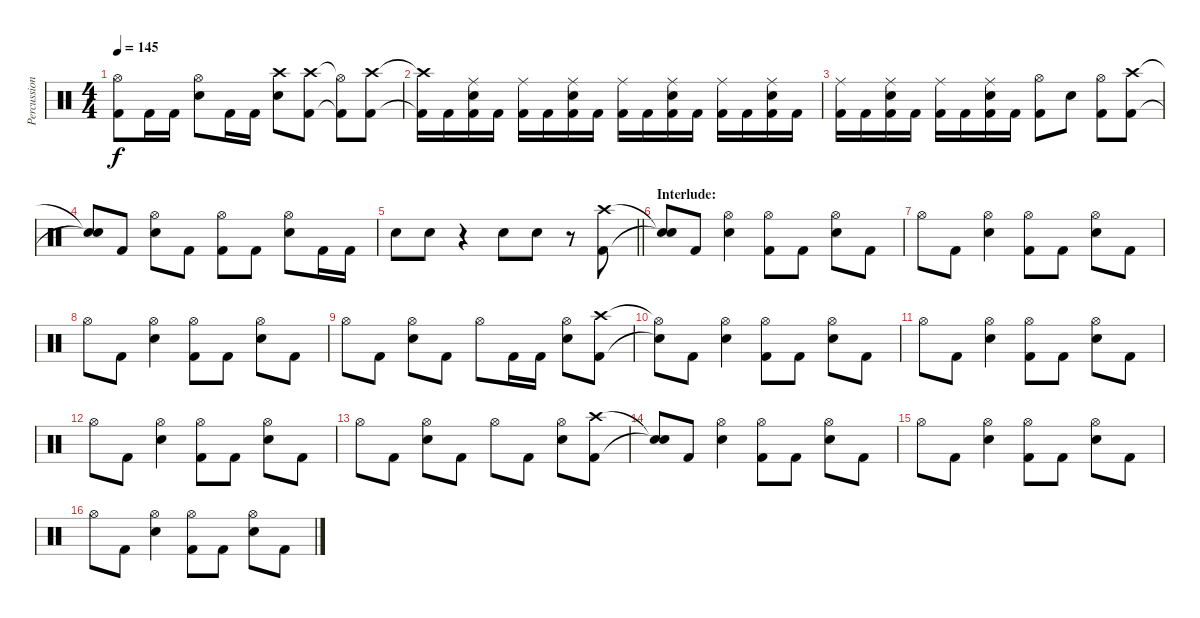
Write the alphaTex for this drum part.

\track ("Percussion" "Percussion") {instrument percussion}
\staff {score}
\articulation defaults
\ts (4 4)
\tempo 145
\clef neutral
\ks c
("Hi-Hat (open)" "Kick (hit) 2").8{dy f} "Kick (hit) 2".16 "Kick (hit) 2".16 ("Hi-Hat (open)" "Electric Snare (hit)").8 "Kick (hit) 2".16 "Kick (hit) 2".16 ("Crash high (hit)" "Electric Snare (hit)").8 ("Crash high (hit)" "Kick (hit) 2").8 ("Hi-Hat (open)"{t} "Kick (hit) 2"{t}).8 ("Crash high (hit)" "Kick (hit) 2").8 |
("Crash high (hit)"{t} "Kick (hit) 2"{t}).16 "Kick (hit) 2".16 ("Ride (middle)" "Electric Snare (hit)" "Kick (hit) 2").16 "Kick (hit) 2".16 ("Ride (middle)" "Kick (hit) 2").16 "Kick (hit) 2".16 ("Ride (middle)" "Electric Snare (hit)" "Kick (hit) 2").16 "Kick (hit) 2".16 ("Ride (middle)" "Kick (hit) 2").16 "Kick (hit) 2".16 ("Ride (middle)" "Electric Snare (hit)" "Kick (hit) 2").16 "Kick (hit) 2".16 ("Ride (middle)" "Kick (hit) 2").16 "Kick (hit) 2".16 ("Ride (middle)" "Electric Snare (hit)" "Kick (hit) 2").16 "Kick (hit) 2".16 |
("Ride (middle)" "Kick (hit) 2").16 "Kick (hit) 2".16 ("Ride (middle)" "Electric Snare (hit)" "Kick (hit) 2").16 "Kick (hit) 2".16 ("Ride (middle)" "Kick (hit) 2").16 "Kick (hit) 2".16 ("Ride (middle)" "Electric Snare (hit)" "Kick (hit) 2").16 "Kick (hit) 2".16 ("Hi-Hat (open)" "Kick (hit) 2").8 "Electric Snare (hit)".8 ("Hi-Hat (open)" "Kick (hit) 2").8 ("Crash high (hit)" "Kick (hit) 2").8 |
("Snare (hit)"{t} "Snare (hit)"{t}).8 "Kick (hit) 2".8 ("Hi-Hat (open)" "Electric Snare (hit)").8 "Kick (hit) 2".8 ("Hi-Hat (open)" "Kick (hit) 2").8 "Kick (hit) 2".8 ("Hi-Hat (open)" "Electric Snare (hit)").8 "Kick (hit) 2".16 "Kick (hit) 2".16 |
\barLineRight lightlight "Electric Snare (hit)".8 "Electric Snare (hit)".8
r.4 "Electric Snare (hit)".8 "Electric Snare (hit)".8 r.8 ("Crash high (hit)" "Kick (hit) 2").8 |
\section ("" "Interlude:")
("Snare (hit)"{t} "Snare (hit)"{t}).8 "Kick (hit) 2".8 ("Hi-Hat (open)" "Electric Snare (hit)").4 ("Hi-Hat (open)" "Kick (hit) 2").8 "Kick (hit) 2".8 ("Hi-Hat (open)" "Electric Snare (hit)").8 "Kick (hit) 2".8 |
"Hi-Hat (open)".8 "Kick (hit) 2".8 ("Hi-Hat (open)" "Electric Snare (hit)").4 ("Hi-Hat (open)" "Kick (hit) 2").8 "Kick (hit) 2".8 ("Hi-Hat (open)" "Electric Snare (hit)").8 "Kick (hit) 2".8 |
"Hi-Hat (open)".8 "Kick (hit) 2".8 ("Hi-Hat (open)" "Electric Snare (hit)").4 ("Hi-Hat (open)" "Kick (hit) 2").8 "Kick (hit) 2".8 ("Hi-Hat (open)" "Electric Snare (hit)").8 "Kick (hit) 2".8 |
"Hi-Hat (open)".8 "Kick (hit) 2".8 ("Hi-Hat (open)" "Electric Snare (hit)").8 "Kick (hit) 2".8 "Hi-Hat (open)".8 "Kick (hit) 2".16 "Kick (hit) 2".16 ("Hi-Hat (open)" "Electric Snare (hit)").8 ("Crash high (hit)" "Kick (hit) 2").8 |
("Hi-Hat (open)"{t} "Snare (hit)"{t}).8 "Kick (hit) 2".8 ("Hi-Hat (open)" "Electric Snare (hit)").4 ("Hi-Hat (open)" "Kick (hit) 2").8 "Kick (hit) 2".8 ("Hi-Hat (open)" "Electric Snare (hit)").8 "Kick (hit) 2".8 |
"Hi-Hat (open)".8 "Kick (hit) 2".8 ("Hi-Hat (open)" "Electric Snare (hit)").4 ("Hi-Hat (open)" "Kick (hit) 2").8 "Kick (hit) 2".8 ("Hi-Hat (open)" "Electric Snare (hit)").8 "Kick (hit) 2".8 |
"Hi-Hat (open)".8 "Kick (hit) 2".8 ("Hi-Hat (open)" "Electric Snare (hit)").4 ("Hi-Hat (open)" "Kick (hit) 2").8 "Kick (hit) 2".8 ("Hi-Hat (open)" "Electric Snare (hit)").8 "Kick (hit) 2".8 |
"Hi-Hat (open)".8 "Kick (hit) 2".8 ("Hi-Hat (open)" "Electric Snare (hit)").8 "Kick (hit) 2".8 "Hi-Hat (open)".8 "Kick (hit) 2".8 ("Hi-Hat (open)" "Electric Snare (hit)").8 ("Crash high (hit)" "Kick (hit) 2").8 |
("Snare (hit)"{t} "Snare (hit)"{t}).8 "Kick (hit) 2".8 ("Hi-Hat (open)" "Electric Snare (hit)").4 ("Hi-Hat (open)" "Kick (hit) 2").8 "Kick (hit) 2".8 ("Hi-Hat (open)" "Electric Snare (hit)").8 "Kick (hit) 2".8 |
"Hi-Hat (open)".8 "Kick (hit) 2".8 ("Hi-Hat (open)" "Electric Snare (hit)").4 ("Hi-Hat (open)" "Kick (hit) 2").8 "Kick (hit) 2".8 ("Hi-Hat (open)" "Electric Snare (hit)").8 "Kick (hit) 2".8 |
"Hi-Hat (open)".8 "Kick (hit) 2".8 ("Hi-Hat (open)" "Electric Snare (hit)").4 ("Hi-Hat (open)" "Kick (hit) 2").8 "Kick (hit) 2".8 ("Hi-Hat (open)" "Electric Snare (hit)").8 "Kick (hit) 2".8
